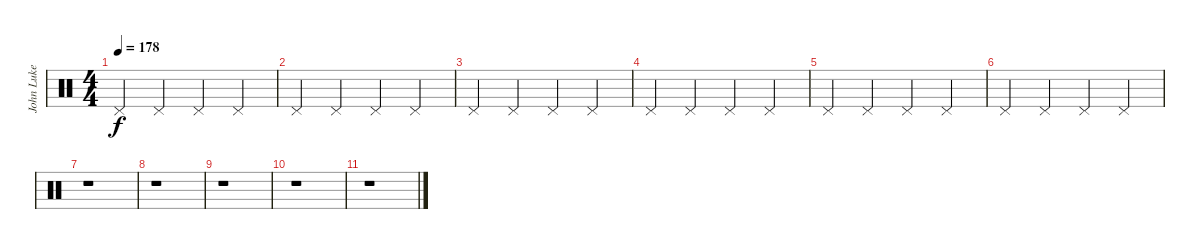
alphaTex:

\track ("John Luke (Drums)" "John Luke ") {instrument percussion}
\staff {score}
\articulation defaults
\ts (4 4)
\tempo 178
\clef neutral
\ks c "Pedal Hi-Hat (hit)".4{dy f volume 6} "Pedal Hi-Hat (hit)".4 "Pedal Hi-Hat (hit)".4 "Pedal Hi-Hat (hit)".4
|
"Pedal Hi-Hat (hit)".4 "Pedal Hi-Hat (hit)".4 "Pedal Hi-Hat (hit)".4 "Pedal Hi-Hat (hit)".4 |
"Pedal Hi-Hat (hit)".4{volume 2} "Pedal Hi-Hat (hit)".4 "Pedal Hi-Hat (hit)".4 "Pedal Hi-Hat (hit)".4 |
"Pedal Hi-Hat (hit)".4 "Pedal Hi-Hat (hit)".4 "Pedal Hi-Hat (hit)".4 "Pedal Hi-Hat (hit)".4 |
"Pedal Hi-Hat (hit)".4{volume 0} "Pedal Hi-Hat (hit)".4 "Pedal Hi-Hat (hit)".4 "Pedal Hi-Hat (hit)".4 |
"Pedal Hi-Hat (hit)".4 "Pedal Hi-Hat (hit)".4 "Pedal Hi-Hat (hit)".4 "Pedal Hi-Hat (hit)".4 |
r.1 |
r.1 |
r.1 |
r.1 |
r.1
